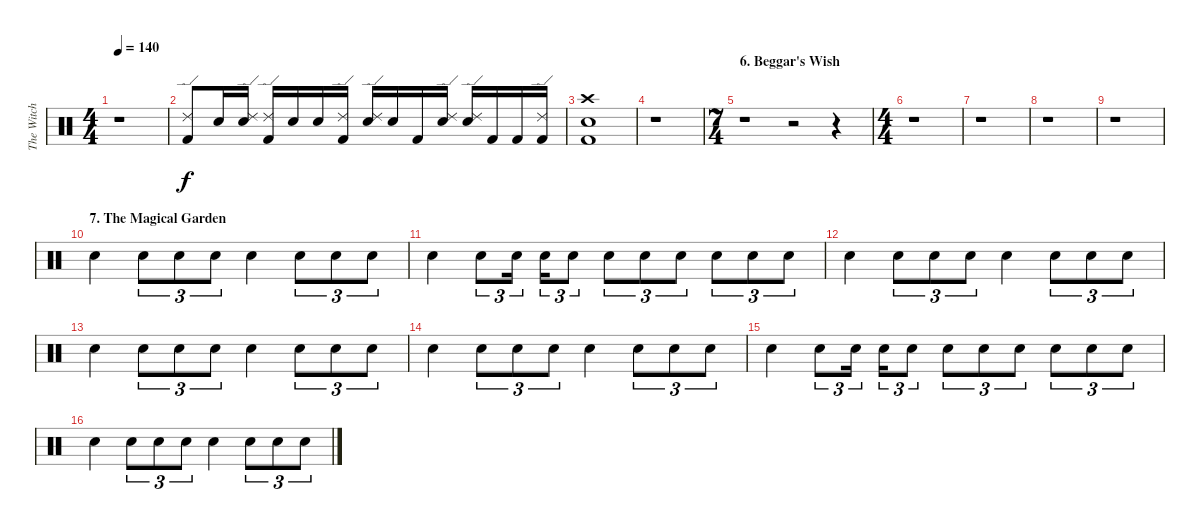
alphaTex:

\track ("The Witch" "The Witch") {instrument percussion}
\staff {score}
\articulation defaults
\ts (4 4)
\tempo 140
\clef neutral
\ks c
r.1{dy f} |
("Ride (edge) 2" "Kick (hit) 2").8{volume 16} "Electric Snare (hit)".16 ("Ride (edge) 2" "Electric Snare (hit)").16 ("Ride (edge) 2" "Kick (hit) 2").16 "Electric Snare (hit)".16 "Electric Snare (hit)".16 ("Ride (edge) 2" "Kick (hit) 2").16 ("Ride (edge) 2" "Electric Snare (hit)").16 "Electric Snare (hit)".16 "Kick (hit) 2".16 ("Ride (edge) 2" "Electric Snare (hit)").16 ("Ride (edge) 2" "Electric Snare (hit)").16 "Kick (hit) 2".16 "Kick (hit) 2".16 ("Ride (edge) 2" "Kick (hit) 2").16 |
("Crash high (hit)" "Electric Snare (hit)" "Kick (hit) 2").1 |
r.1 |
\ts (7 4)
\section ("" "6. Beggar's Wish")
r.1 r.2 r.4 |
\ts (4 4)
r.1 |
r.1 |
r.1 |
r.1 |
\section ("" "7. The Magical Garden")
"Electric Snare (hit)".4{volume 9} "Electric Snare (hit)".8{tu (3 2)} "Electric Snare (hit)".8{tu (3 2)} "Electric Snare (hit)".8{tu (3 2)} "Electric Snare (hit)".4 "Electric Snare (hit)".8{tu (3 2)} "Electric Snare (hit)".8{tu (3 2)} "Electric Snare (hit)".8{tu (3 2)} |
"Electric Snare (hit)".4 "Electric Snare (hit)".8{tu (3 2)} "Electric Snare (hit)".16{tu (3 2)} "Electric Snare (hit)".16{tu (3 2)} "Electric Snare (hit)".8{tu (3 2)} "Electric Snare (hit)".8{tu (3 2)} "Electric Snare (hit)".8{tu (3 2)} "Electric Snare (hit)".8{tu (3 2)} "Electric Snare (hit)".8{tu (3 2)} "Electric Snare (hit)".8{tu (3 2)} "Electric Snare (hit)".8{tu (3 2)} |
"Electric Snare (hit)".4 "Electric Snare (hit)".8{tu (3 2)} "Electric Snare (hit)".8{tu (3 2)} "Electric Snare (hit)".8{tu (3 2)} "Electric Snare (hit)".4 "Electric Snare (hit)".8{tu (3 2)} "Electric Snare (hit)".8{tu (3 2)} "Electric Snare (hit)".8{tu (3 2)} |
"Electric Snare (hit)".4 "Electric Snare (hit)".8{tu (3 2)} "Electric Snare (hit)".8{tu (3 2)} "Electric Snare (hit)".8{tu (3 2)} "Electric Snare (hit)".4 "Electric Snare (hit)".8{tu (3 2)} "Electric Snare (hit)".8{tu (3 2)} "Electric Snare (hit)".8{tu (3 2)} |
"Electric Snare (hit)".4{volume 9} "Electric Snare (hit)".8{tu (3 2)} "Electric Snare (hit)".8{tu (3 2)} "Electric Snare (hit)".8{tu (3 2)} "Electric Snare (hit)".4 "Electric Snare (hit)".8{tu (3 2)} "Electric Snare (hit)".8{tu (3 2)} "Electric Snare (hit)".8{tu (3 2)} |
"Electric Snare (hit)".4 "Electric Snare (hit)".8{tu (3 2)} "Electric Snare (hit)".16{tu (3 2)} "Electric Snare (hit)".16{tu (3 2)} "Electric Snare (hit)".8{tu (3 2)} "Electric Snare (hit)".8{tu (3 2)} "Electric Snare (hit)".8{tu (3 2)} "Electric Snare (hit)".8{tu (3 2)} "Electric Snare (hit)".8{tu (3 2)} "Electric Snare (hit)".8{tu (3 2)} "Electric Snare (hit)".8{tu (3 2)} |
"Electric Snare (hit)".4 "Electric Snare (hit)".8{tu (3 2)} "Electric Snare (hit)".8{tu (3 2)} "Electric Snare (hit)".8{tu (3 2)} "Electric Snare (hit)".4 "Electric Snare (hit)".8{tu (3 2)} "Electric Snare (hit)".8{tu (3 2)} "Electric Snare (hit)".8{tu (3 2)}
